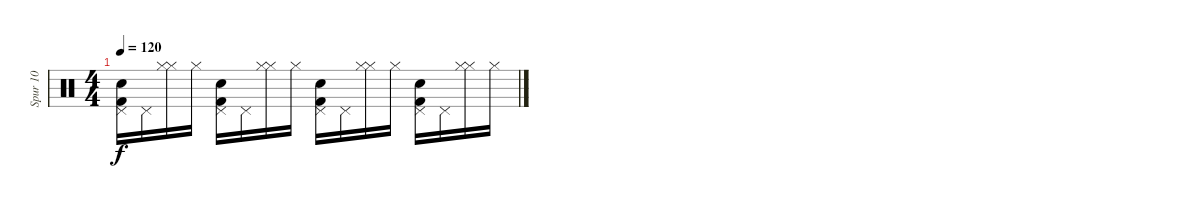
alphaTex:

\track ("Spur 10" "Spur 10") {instrument percussion}
\staff {score}
\articulation defaults
\ts (4 4)
\tempo 120
\clef neutral
\ks c
("Hand Clap (hit)" "Pedal Hi-Hat (hit)" "Kick (hit) 2").16{dy f} "Pedal Hi-Hat (hit)".16 ("Hi-Hat (closed)" "Hi-Hat (closed)").16 "Hi-Hat (closed)".16 ("Hand Clap (hit)" "Pedal Hi-Hat (hit)" "Kick (hit) 2").16 "Pedal Hi-Hat (hit)".16 ("Hi-Hat (closed)" "Hi-Hat (closed)").16 "Hi-Hat (closed)".16 ("Hand Clap (hit)" "Pedal Hi-Hat (hit)" "Kick (hit) 2").16 "Pedal Hi-Hat (hit)".16 ("Hi-Hat (closed)" "Hi-Hat (closed)").16 "Hi-Hat (closed)".16 ("Hand Clap (hit)" "Pedal Hi-Hat (hit)" "Kick (hit) 2").16 "Pedal Hi-Hat (hit)".16 ("Hi-Hat (closed)" "Hi-Hat (closed)").16 "Hi-Hat (closed)".16
